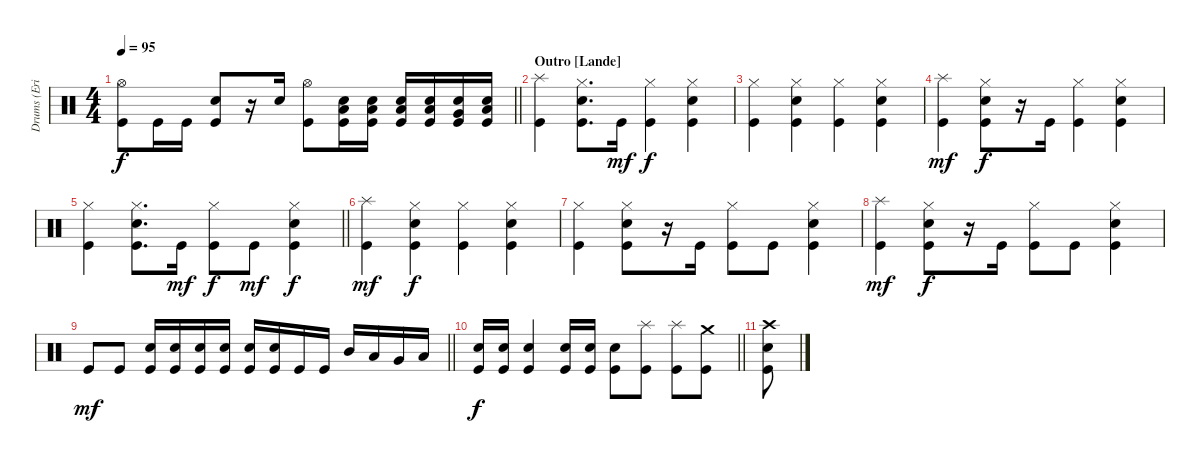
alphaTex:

\track ("Drums (Eric Singer)" "Drums (Eri") {instrument percussion}
\staff {score}
\articulation defaults
\ts (4 4)
\tempo 95
\clef neutral
\barLineRight lightlight
\ks c
("Kick (hit)" "Hi-Hat (open)").8{dy f} "Kick (hit)".16 "Kick (hit)".16 ("Snare (hit) 2" "Kick (hit)").8 r.16 "Snare (hit) 2".16 ("Kick (hit)" "Hi-Hat (open)").8 ("Snare (hit) 2" "Low Tom (hit)" "Kick (hit)").16 ("Snare (hit) 2" "Low Tom (hit)" "Kick (hit)").16 ("Snare (hit) 2" "Low Tom (hit)" "Kick (hit)").16 ("Snare (hit) 2" "Low Tom (hit)" "Kick (hit)").16 ("Snare (hit) 2" "Very Low Tom (hit)" "Kick (hit)").16 ("Snare (hit) 2" "Low Floor Tom (hit)" "Kick (hit)").16 |
\section ("" "Outro [Lande]")
("Splash (hit)" "Kick (hit)").4 ("Snare (hit) 2" "Kick (hit)" "Hi-Hat (closed)").8{d} "Kick (hit)".16{dy mf} ("Kick (hit)" "Hi-Hat (closed)").4{dy f} ("Snare (hit) 2" "Kick (hit)" "Hi-Hat (closed)").4 |
("Kick (hit)" "Hi-Hat (closed)").4 ("Snare (hit) 2" "Kick (hit)" "Hi-Hat (closed)").4 ("Kick (hit)" "Hi-Hat (closed)").4 ("Snare (hit) 2" "Kick (hit)" "Hi-Hat (closed)").4 |
("Splash (hit)" "Kick (hit)").4{dy mf} ("Snare (hit) 2" "Kick (hit)" "Hi-Hat (closed)").8{dy f} r.16 "Kick (hit)".16 ("Kick (hit)" "Hi-Hat (closed)").4 ("Snare (hit) 2" "Kick (hit)" "Hi-Hat (closed)").4 |
\barLineRight lightlight
("Kick (hit)" "Hi-Hat (closed)").4 ("Snare (hit) 2" "Kick (hit)" "Hi-Hat (closed)").8{d} "Kick (hit)".16{dy mf} ("Kick (hit)" "Hi-Hat (closed)").8{dy f} "Kick (hit)".8{dy mf} ("Snare (hit) 2" "Kick (hit)" "Hi-Hat (closed)").4{dy f} |
("Splash (hit)" "Kick (hit)").4{dy mf} ("Snare (hit) 2" "Kick (hit)" "Hi-Hat (closed)").4{dy f} ("Kick (hit)" "Hi-Hat (closed)").4 ("Snare (hit) 2" "Kick (hit)" "Hi-Hat (closed)").4 |
("Kick (hit)" "Hi-Hat (closed)").4 ("Snare (hit) 2" "Kick (hit)" "Hi-Hat (closed)").8 r.16 "Kick (hit)".16 ("Kick (hit)" "Hi-Hat (closed)").8 "Kick (hit)".8 ("Snare (hit) 2" "Kick (hit)" "Hi-Hat (closed)").4 |
("Splash (hit)" "Kick (hit)").4{dy mf} ("Snare (hit) 2" "Kick (hit)" "Hi-Hat (closed)").8{dy f} r.16 "Kick (hit)".16 ("Kick (hit)" "Hi-Hat (closed)").8 "Kick (hit)".8 ("Snare (hit) 2" "Kick (hit)" "Hi-Hat (closed)").4 |
\barLineRight lightlight "Kick (hit)".8{dy mf} "Kick (hit)".8
("Snare (hit) 2" "Kick (hit)").16 ("Snare (hit) 2" "Kick (hit)").16 ("Snare (hit) 2" "Kick (hit)").16 ("Snare (hit) 2" "Kick (hit)").16 ("Snare (hit) 2" "Kick (hit)").16 ("Snare (hit) 2" "Kick (hit)").16 "Kick (hit)".16 "Kick (hit)".16 "Mid Tom (hit)".16 "Low Tom (hit)".16 "Very Low Tom (hit)".16 "Low Floor Tom (hit)".16 |
\barLineRight lightlight
("Snare (hit) 2" "Kick (hit)").16{dy f} ("Snare (hit) 2" "Kick (hit)").16 ("Snare (hit) 2" "Kick (hit)").4 ("Snare (hit) 2" "Kick (hit)").16 ("Snare (hit) 2" "Kick (hit)").16 ("Snare (hit) 2" "Kick (hit)").8 ("Splash (hit)" "Kick (hit)").8 ("Splash (hit)" "Kick (hit)").8 ("Crash medium (hit)" "Kick (hit)").8 |
("Snare (hit) 2" "Crash high (hit)" "Kick (hit)").8
